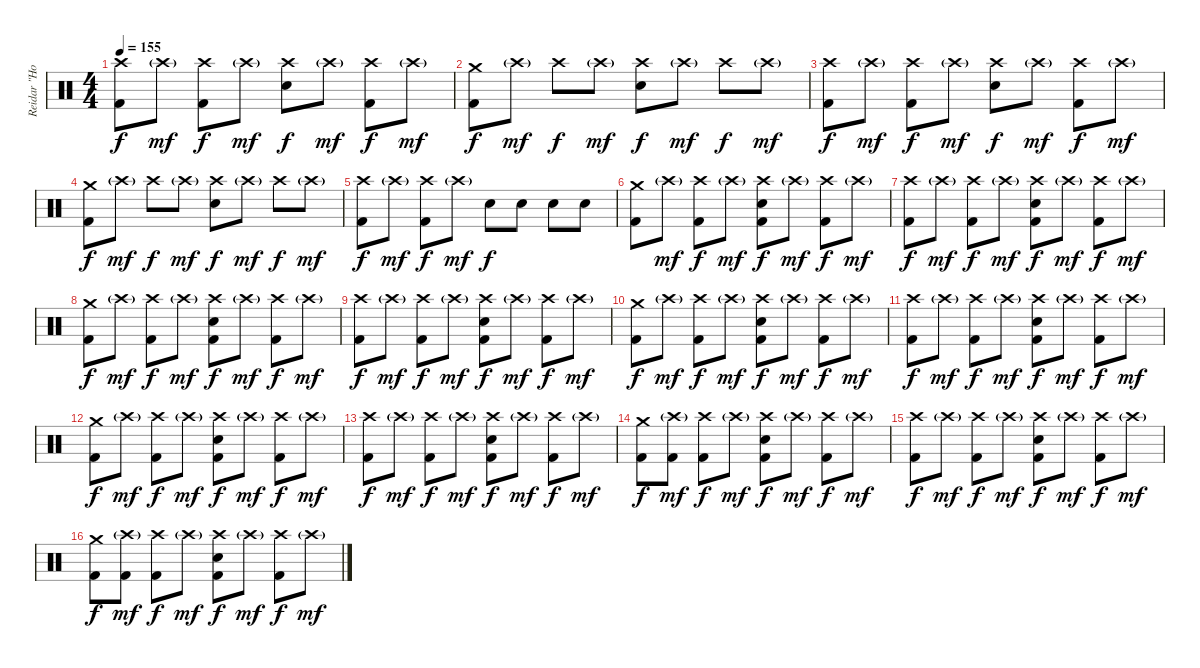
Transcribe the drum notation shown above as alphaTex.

\track ("Reidar \"Horgh\" Horghagen " "Reidar \"Ho") {instrument percussion}
\staff {score}
\articulation defaults
\ts (4 4)
\tempo 155
\clef neutral
\ks c
("Crash high (hit)" "Kick (hit) 2").8{dy f} "Crash high (hit)"{g}.8{dy mf} ("Crash high (hit)" "Kick (hit) 2").8{dy f} "Crash high (hit)"{g}.8{dy mf} ("Crash high (hit)" "Snare (hit) 2").8{dy f} "Crash high (hit)"{g}.8{dy mf} ("Crash high (hit)" "Kick (hit) 2").8{dy f} "Crash high (hit)"{g}.8{dy mf} |
("Crash medium (hit)" "Kick (hit) 2").8{dy f} "Crash high (hit)"{g}.8{dy mf} "Crash high (hit)".8{dy f} "Crash high (hit)"{g}.8{dy mf} ("Crash high (hit)" "Snare (hit) 2").8{dy f} "Crash high (hit)"{g}.8{dy mf} "Crash high (hit)".8{dy f} "Crash high (hit)"{g}.8{dy mf} |
("Crash high (hit)" "Kick (hit) 2").8{dy f} "Crash high (hit)"{g}.8{dy mf} ("Crash high (hit)" "Kick (hit) 2").8{dy f} "Crash high (hit)"{g}.8{dy mf} ("Crash high (hit)" "Snare (hit) 2").8{dy f} "Crash high (hit)"{g}.8{dy mf} ("Crash high (hit)" "Kick (hit) 2").8{dy f} "Crash high (hit)"{g}.8{dy mf} |
("Crash medium (hit)" "Kick (hit) 2").8{dy f} "Crash high (hit)"{g}.8{dy mf} "Crash high (hit)".8{dy f} "Crash high (hit)"{g}.8{dy mf} ("Crash high (hit)" "Snare (hit) 2").8{dy f} "Crash high (hit)"{g}.8{dy mf} "Crash high (hit)".8{dy f} "Crash high (hit)"{g}.8{dy mf} |
("Crash high (hit)" "Kick (hit) 2").8{dy f} "Crash high (hit)"{g}.8{dy mf} ("Crash high (hit)" "Kick (hit) 2").8{dy f} "Crash high (hit)"{g}.8{dy mf} "Snare (hit) 2".8{dy f} "Snare (hit) 2".8 "Snare (hit) 2".8 "Snare (hit) 2".8 |
("Crash medium (hit)" "Kick (hit) 2").8 "Crash high (hit)"{g}.8{dy mf} ("Crash high (hit)" "Kick (hit) 2").8{dy f} "Crash high (hit)"{g}.8{dy mf} ("Crash high (hit)" "Snare (hit) 2" "Kick (hit) 2").8{dy f} "Crash high (hit)"{g}.8{dy mf} ("Crash high (hit)" "Kick (hit) 2").8{dy f} "Crash high (hit)"{g}.8{dy mf} |
("Crash high (hit)" "Kick (hit) 2").8{dy f} "Crash high (hit)"{g}.8{dy mf} ("Crash high (hit)" "Kick (hit) 2").8{dy f} "Crash high (hit)"{g}.8{dy mf} ("Crash high (hit)" "Snare (hit) 2" "Kick (hit) 2").8{dy f} "Crash high (hit)"{g}.8{dy mf} ("Crash high (hit)" "Kick (hit) 2").8{dy f} "Crash high (hit)"{g}.8{dy mf} |
("Crash medium (hit)" "Kick (hit) 2").8{dy f} "Crash high (hit)"{g}.8{dy mf} ("Crash high (hit)" "Kick (hit) 2").8{dy f} "Crash high (hit)"{g}.8{dy mf} ("Crash high (hit)" "Snare (hit) 2" "Kick (hit) 2").8{dy f} "Crash high (hit)"{g}.8{dy mf} ("Crash high (hit)" "Kick (hit) 2").8{dy f} "Crash high (hit)"{g}.8{dy mf} |
("Crash high (hit)" "Kick (hit) 2").8{dy f} "Crash high (hit)"{g}.8{dy mf} ("Crash high (hit)" "Kick (hit) 2").8{dy f} "Crash high (hit)"{g}.8{dy mf} ("Crash high (hit)" "Snare (hit) 2" "Kick (hit) 2").8{dy f} "Crash high (hit)"{g}.8{dy mf} ("Crash high (hit)" "Kick (hit) 2").8{dy f} "Crash high (hit)"{g}.8{dy mf} |
("Crash medium (hit)" "Kick (hit) 2").8{dy f} "Crash high (hit)"{g}.8{dy mf} ("Crash high (hit)" "Kick (hit) 2").8{dy f} "Crash high (hit)"{g}.8{dy mf} ("Crash high (hit)" "Snare (hit) 2" "Kick (hit) 2").8{dy f} "Crash high (hit)"{g}.8{dy mf} ("Crash high (hit)" "Kick (hit) 2").8{dy f} "Crash high (hit)"{g}.8{dy mf} |
("Crash high (hit)" "Kick (hit) 2").8{dy f} "Crash high (hit)"{g}.8{dy mf} ("Crash high (hit)" "Kick (hit) 2").8{dy f} "Crash high (hit)"{g}.8{dy mf} ("Crash high (hit)" "Snare (hit) 2" "Kick (hit) 2").8{dy f} "Crash high (hit)"{g}.8{dy mf} ("Crash high (hit)" "Kick (hit) 2").8{dy f} "Crash high (hit)"{g}.8{dy mf} |
("Crash medium (hit)" "Kick (hit) 2").8{dy f} "Crash high (hit)"{g}.8{dy mf} ("Crash high (hit)" "Kick (hit) 2").8{dy f} "Crash high (hit)"{g}.8{dy mf} ("Crash high (hit)" "Snare (hit) 2" "Kick (hit) 2").8{dy f} "Crash high (hit)"{g}.8{dy mf} ("Crash high (hit)" "Kick (hit) 2").8{dy f} "Crash high (hit)"{g}.8{dy mf} |
("Crash high (hit)" "Kick (hit) 2").8{dy f} "Crash high (hit)"{g}.8{dy mf} ("Crash high (hit)" "Kick (hit) 2").8{dy f} "Crash high (hit)"{g}.8{dy mf} ("Crash high (hit)" "Snare (hit) 2" "Kick (hit) 2").8{dy f} "Crash high (hit)"{g}.8{dy mf} ("Crash high (hit)" "Kick (hit) 2").8{dy f} "Crash high (hit)"{g}.8{dy mf} |
("Crash medium (hit)" "Kick (hit) 2").8{dy f} ("Crash high (hit)"{g} "Kick (hit) 2").8{dy mf} ("Crash high (hit)" "Kick (hit) 2").8{dy f} "Crash high (hit)"{g}.8{dy mf} ("Crash high (hit)" "Snare (hit) 2" "Kick (hit) 2").8{dy f} "Crash high (hit)"{g}.8{dy mf} ("Crash high (hit)" "Kick (hit) 2").8{dy f} "Crash high (hit)"{g}.8{dy mf} |
("Crash high (hit)" "Kick (hit) 2").8{dy f} "Crash high (hit)"{g}.8{dy mf} ("Crash high (hit)" "Kick (hit) 2").8{dy f} "Crash high (hit)"{g}.8{dy mf} ("Crash high (hit)" "Snare (hit) 2" "Kick (hit) 2").8{dy f} "Crash high (hit)"{g}.8{dy mf} ("Crash high (hit)" "Kick (hit) 2").8{dy f} "Crash high (hit)"{g}.8{dy mf} |
("Crash medium (hit)" "Kick (hit) 2").8{dy f} ("Crash high (hit)"{g} "Kick (hit) 2").8{dy mf} ("Crash high (hit)" "Kick (hit) 2").8{dy f} "Crash high (hit)"{g}.8{dy mf} ("Crash high (hit)" "Snare (hit) 2" "Kick (hit) 2").8{dy f} "Crash high (hit)"{g}.8{dy mf} ("Crash high (hit)" "Kick (hit) 2").8{dy f} "Crash high (hit)"{g}.8{dy mf}
